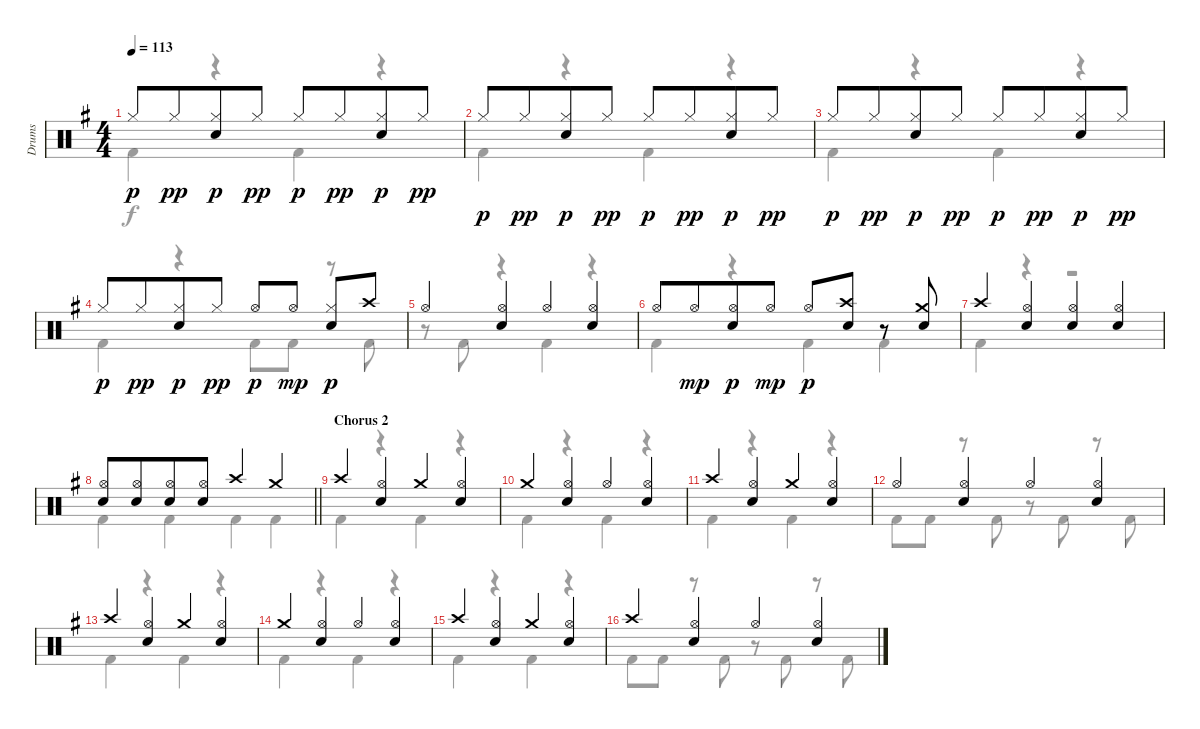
\track ("Drums" "Drums") {instrument percussion}
\staff {score}
\articulation defaults
\voice
\ts (4 4)
\tempo 113
\clef neutral
\ks g "Hi-Hat (closed)".8{dy p} "Hi-Hat (closed)".8{dy pp beam merge}
("Hi-Hat (closed)" "Electric Snare (hit)").8{dy p} "Hi-Hat (closed)".8{dy pp} "Hi-Hat (closed)".8{dy p} "Hi-Hat (closed)".8{dy pp beam merge} ("Hi-Hat (closed)" "Electric Snare (hit)").8{dy p} "Hi-Hat (closed)".8{dy pp} |
"Hi-Hat (closed)".8{dy p} "Hi-Hat (closed)".8{dy pp beam merge} ("Hi-Hat (closed)" "Electric Snare (hit)").8{dy p} "Hi-Hat (closed)".8{dy pp} "Hi-Hat (closed)".8{dy p} "Hi-Hat (closed)".8{dy pp beam merge} ("Hi-Hat (closed)" "Electric Snare (hit)").8{dy p} "Hi-Hat (closed)".8{dy pp} |
"Hi-Hat (closed)".8{dy p} "Hi-Hat (closed)".8{dy pp beam merge} ("Hi-Hat (closed)" "Electric Snare (hit)").8{dy p} "Hi-Hat (closed)".8{dy pp} "Hi-Hat (closed)".8{dy p} "Hi-Hat (closed)".8{dy pp beam merge} ("Hi-Hat (closed)" "Electric Snare (hit)").8{dy p} "Hi-Hat (closed)".8{dy pp} |
"Hi-Hat (closed)".8{dy p} "Hi-Hat (closed)".8{dy pp beam merge} ("Hi-Hat (closed)" "Electric Snare (hit)").8{dy p} "Hi-Hat (closed)".8{dy pp} "Hi-Hat (open)".8{dy p} "Hi-Hat (open)".8{dy mp beam split} ("Hi-Hat (closed)" "Electric Snare (hit)").8{dy p} "Crash high (hit)".8 |
"Hi-Hat (open)".4 ("Hi-Hat (open)" "Electric Snare (hit)").4 "Hi-Hat (open)".4 ("Hi-Hat (open)" "Electric Snare (hit)").4 |
"Hi-Hat (open)".8 "Hi-Hat (open)".8{dy mp beam merge} ("Hi-Hat (open)" "Electric Snare (hit)").8{dy p} "Hi-Hat (open)".8{dy mp} "Hi-Hat (open)".8{dy p} ("Electric Snare (hit)" "Crash high (hit)").8 r.8 ("Electric Snare (hit)" "Crash medium (hit)").8 |
"Crash high (hit)".4 ("Hi-Hat (open)" "Electric Snare (hit)").4 ("Hi-Hat (open)" "Electric Snare (hit)").4 ("Hi-Hat (open)" "Electric Snare (hit)").4 |
\barLineRight lightlight
("Electric Snare (hit)" "Hi-Hat (open)").8 ("Electric Snare (hit)" "Hi-Hat (open)").8{beam merge} ("Electric Snare (hit)" "Hi-Hat (open)").8 ("Electric Snare (hit)" "Hi-Hat (open)").8 "Crash high (hit)".4 "Crash medium (hit)".4 |
\section ("" "Chorus 2")
"Crash high (hit)".4 ("Hi-Hat (open)" "Electric Snare (hit)").4 "Crash medium (hit)".4 ("Hi-Hat (open)" "Electric Snare (hit)").4 |
"Crash medium (hit)".4 ("Hi-Hat (open)" "Electric Snare (hit)").4 "Hi-Hat (open)".4 ("Hi-Hat (open)" "Electric Snare (hit)").4 |
"Crash high (hit)".4 ("Hi-Hat (open)" "Electric Snare (hit)").4 "Crash medium (hit)".4 ("Hi-Hat (open)" "Electric Snare (hit)").4 |
"Hi-Hat (open)".4 ("Electric Snare (hit)" "Hi-Hat (open)").4 "Hi-Hat (open)".4 ("Electric Snare (hit)" "Hi-Hat (open)").4 |
"Crash high (hit)".4 ("Hi-Hat (open)" "Electric Snare (hit)").4 "Crash medium (hit)".4 ("Hi-Hat (open)" "Electric Snare (hit)").4 |
"Crash medium (hit)".4 ("Hi-Hat (open)" "Electric Snare (hit)").4 "Hi-Hat (open)".4 ("Hi-Hat (open)" "Electric Snare (hit)").4 |
"Crash high (hit)".4 ("Hi-Hat (open)" "Electric Snare (hit)").4 "Crash medium (hit)".4 ("Hi-Hat (open)" "Electric Snare (hit)").4 |
"Crash high (hit)".4 ("Electric Snare (hit)" "Hi-Hat (open)").4 "Hi-Hat (open)".4 ("Electric Snare (hit)" "Hi-Hat (open)").4
\voice
\clef neutral
\ottava regular
\simile none
\ks g "Kick (hit) 2".4{dy f}
r.4 "Kick (hit) 2".4 r.4 |
"Kick (hit) 2".4 r.4 "Kick (hit) 2".4 r.4 |
"Kick (hit) 2".4 r.4 "Kick (hit) 2".4 r.4 |
"Kick (hit) 2".4 r.4 "Kick (hit) 2".8 "Kick (hit) 2".8 r.8 "Kick (hit) 2".8 |
r.8 "Kick (hit) 2".8 r.4 "Kick (hit) 2".4 r.4 |
"Kick (hit) 2".4 r.4 "Kick (hit) 2".4 "Kick (hit) 2".4 |
"Kick (hit) 2".4 r.4 r.2 |
\barLineRight lightlight "Kick (hit) 2".4 "Kick (hit) 2".4 "Kick (hit) 2".4 "Kick (hit) 2".4
|
"Kick (hit) 2".4 r.4 "Kick (hit) 2".4 r.4 |
"Kick (hit) 2".4 r.4 "Kick (hit) 2".4 r.4 |
"Kick (hit) 2".4 r.4 "Kick (hit) 2".4 r.4 |
"Kick (hit) 2".8 "Kick (hit) 2".8 r.8 "Kick (hit) 2".8 r.8 "Kick (hit) 2".8 r.8 "Kick (hit) 2".8 |
"Kick (hit) 2".4 r.4 "Kick (hit) 2".4 r.4 |
"Kick (hit) 2".4 r.4 "Kick (hit) 2".4 r.4 |
"Kick (hit) 2".4 r.4 "Kick (hit) 2".4 r.4 |
"Kick (hit) 2".8 "Kick (hit) 2".8 r.8 "Kick (hit) 2".8 r.8 "Kick (hit) 2".8 r.8 "Kick (hit) 2".8
